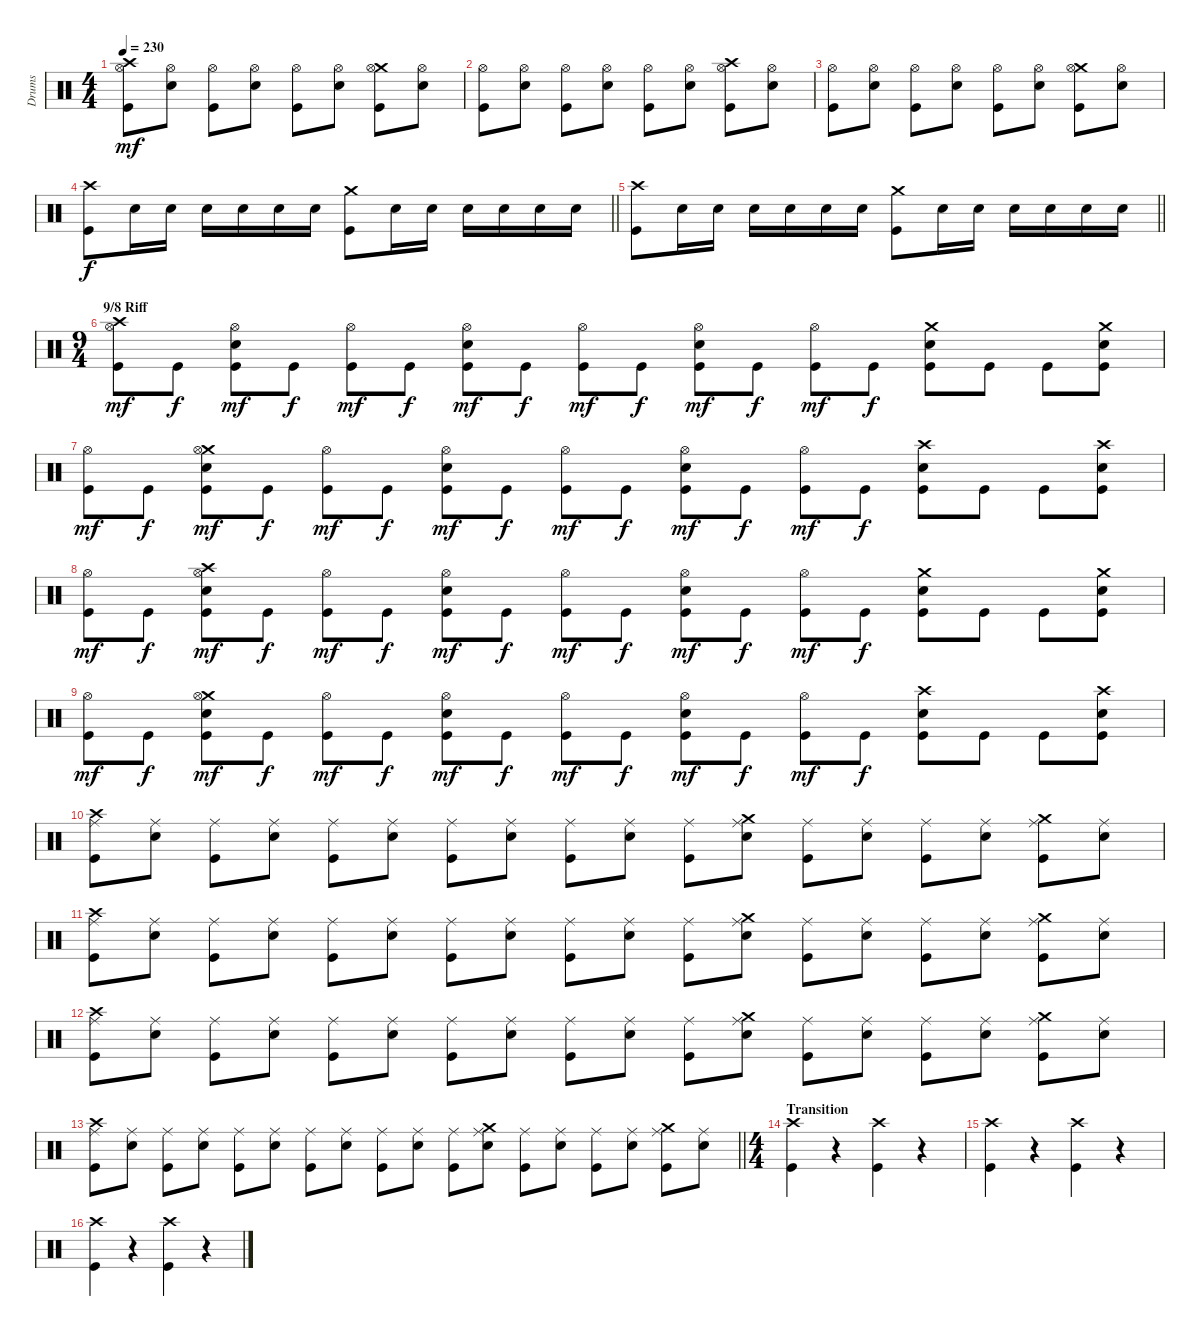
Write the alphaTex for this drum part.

\track ("Drums" "Drums") {instrument percussion}
\staff {score}
\articulation defaults
\ts (4 4)
\tempo 230
\clef neutral
\ks c
("Crash high (hit)" "Hi-Hat (open)" "Kick (hit)").8{dy mf} ("Hi-Hat (open)" "Electric Snare (hit)").8 ("Hi-Hat (open)" "Kick (hit)").8 ("Hi-Hat (open)" "Electric Snare (hit)").8 ("Hi-Hat (open)" "Kick (hit)").8 ("Hi-Hat (open)" "Electric Snare (hit)").8 ("Crash medium (hit)" "Hi-Hat (open)" "Kick (hit)").8 ("Hi-Hat (open)" "Electric Snare (hit)").8 |
("Hi-Hat (open)" "Kick (hit)").8 ("Hi-Hat (open)" "Electric Snare (hit)").8 ("Hi-Hat (open)" "Kick (hit)").8 ("Hi-Hat (open)" "Electric Snare (hit)").8 ("Hi-Hat (open)" "Kick (hit)").8 ("Hi-Hat (open)" "Electric Snare (hit)").8 ("Crash high (hit)" "Hi-Hat (open)" "Kick (hit)").8 ("Hi-Hat (open)" "Electric Snare (hit)").8 |
("Hi-Hat (open)" "Kick (hit)").8 ("Hi-Hat (open)" "Electric Snare (hit)").8 ("Hi-Hat (open)" "Kick (hit)").8 ("Hi-Hat (open)" "Electric Snare (hit)").8 ("Hi-Hat (open)" "Kick (hit)").8 ("Hi-Hat (open)" "Electric Snare (hit)").8 ("Crash medium (hit)" "Hi-Hat (open)" "Kick (hit)").8 ("Hi-Hat (open)" "Electric Snare (hit)").8 |
\barLineRight lightlight
("Crash high (hit)" "Kick (hit)").8{dy f} "Electric Snare (hit)".16 "Electric Snare (hit)".16 "Electric Snare (hit)".16 "Electric Snare (hit)".16 "Electric Snare (hit)".16 "Electric Snare (hit)".16 ("Crash medium (hit)" "Kick (hit)").8 "Electric Snare (hit)".16 "Electric Snare (hit)".16 "Electric Snare (hit)".16 "Electric Snare (hit)".16 "Electric Snare (hit)".16 "Electric Snare (hit)".16 |
\barLineRight lightlight
("Crash high (hit)" "Kick (hit)").8 "Electric Snare (hit)".16 "Electric Snare (hit)".16 "Electric Snare (hit)".16 "Electric Snare (hit)".16 "Electric Snare (hit)".16 "Electric Snare (hit)".16 ("Crash medium (hit)" "Kick (hit)").8 "Electric Snare (hit)".16 "Electric Snare (hit)".16 "Electric Snare (hit)".16 "Electric Snare (hit)".16 "Electric Snare (hit)".16 "Electric Snare (hit)".16 |
\ts (9 4)
\section ("" "9/8 Riff")
("Crash high (hit)" "Hi-Hat (open)" "Kick (hit)").8{dy mf} "Kick (hit)".8{dy f} ("Hi-Hat (open)" "Electric Snare (hit)" "Kick (hit)").8{dy mf} "Kick (hit)".8{dy f} ("Hi-Hat (open)" "Kick (hit)").8{dy mf} "Kick (hit)".8{dy f} ("Hi-Hat (open)" "Electric Snare (hit)" "Kick (hit)").8{dy mf} "Kick (hit)".8{dy f} ("Hi-Hat (open)" "Kick (hit)").8{dy mf} "Kick (hit)".8{dy f} ("Hi-Hat (open)" "Electric Snare (hit)" "Kick (hit)").8{dy mf} "Kick (hit)".8{dy f} ("Hi-Hat (open)" "Kick (hit)").8{dy mf} "Kick (hit)".8{dy f} ("Crash medium (hit)" "Electric Snare (hit)" "Kick (hit)").8 "Kick (hit)".8 "Kick (hit)".8 ("Crash medium (hit)" "Electric Snare (hit)" "Kick (hit)").8 |
("Hi-Hat (open)" "Kick (hit)").8{dy mf} "Kick (hit)".8{dy f} ("Crash medium (hit)" "Hi-Hat (open)" "Electric Snare (hit)" "Kick (hit)").8{dy mf} "Kick (hit)".8{dy f} ("Hi-Hat (open)" "Kick (hit)").8{dy mf} "Kick (hit)".8{dy f} ("Hi-Hat (open)" "Electric Snare (hit)" "Kick (hit)").8{dy mf} "Kick (hit)".8{dy f} ("Hi-Hat (open)" "Kick (hit)").8{dy mf} "Kick (hit)".8{dy f} ("Hi-Hat (open)" "Electric Snare (hit)" "Kick (hit)").8{dy mf} "Kick (hit)".8{dy f} ("Hi-Hat (open)" "Kick (hit)").8{dy mf} "Kick (hit)".8{dy f} ("Crash high (hit)" "Electric Snare (hit)" "Kick (hit)").8 "Kick (hit)".8 "Kick (hit)".8 ("Crash high (hit)" "Electric Snare (hit)" "Kick (hit)").8 |
("Hi-Hat (open)" "Kick (hit)").8{dy mf} "Kick (hit)".8{dy f} ("Crash high (hit)" "Hi-Hat (open)" "Electric Snare (hit)" "Kick (hit)").8{dy mf} "Kick (hit)".8{dy f} ("Hi-Hat (open)" "Kick (hit)").8{dy mf} "Kick (hit)".8{dy f} ("Hi-Hat (open)" "Electric Snare (hit)" "Kick (hit)").8{dy mf} "Kick (hit)".8{dy f} ("Hi-Hat (open)" "Kick (hit)").8{dy mf} "Kick (hit)".8{dy f} ("Hi-Hat (open)" "Electric Snare (hit)" "Kick (hit)").8{dy mf} "Kick (hit)".8{dy f} ("Hi-Hat (open)" "Kick (hit)").8{dy mf} "Kick (hit)".8{dy f} ("Crash medium (hit)" "Electric Snare (hit)" "Kick (hit)").8 "Kick (hit)".8 "Kick (hit)".8 ("Crash medium (hit)" "Electric Snare (hit)" "Kick (hit)").8 |
("Hi-Hat (open)" "Kick (hit)").8{dy mf} "Kick (hit)".8{dy f} ("Crash medium (hit)" "Hi-Hat (open)" "Electric Snare (hit)" "Kick (hit)").8{dy mf} "Kick (hit)".8{dy f} ("Hi-Hat (open)" "Kick (hit)").8{dy mf} "Kick (hit)".8{dy f} ("Hi-Hat (open)" "Electric Snare (hit)" "Kick (hit)").8{dy mf} "Kick (hit)".8{dy f} ("Hi-Hat (open)" "Kick (hit)").8{dy mf} "Kick (hit)".8{dy f} ("Hi-Hat (open)" "Electric Snare (hit)" "Kick (hit)").8{dy mf} "Kick (hit)".8{dy f} ("Hi-Hat (open)" "Kick (hit)").8{dy mf} "Kick (hit)".8{dy f} ("Crash high (hit)" "Electric Snare (hit)" "Kick (hit)").8 "Kick (hit)".8 "Kick (hit)".8 ("Crash high (hit)" "Electric Snare (hit)" "Kick (hit)").8 |
("Crash high (hit)" "Ride (middle)" "Kick (hit)").8 ("Ride (middle)" "Electric Snare (hit)").8 ("Ride (middle)" "Kick (hit)").8 ("Ride (middle)" "Electric Snare (hit)").8 ("Ride (middle)" "Kick (hit)").8 ("Ride (middle)" "Electric Snare (hit)").8 ("Ride (middle)" "Kick (hit)").8 ("Ride (middle)" "Electric Snare (hit)").8 ("Ride (middle)" "Kick (hit)").8 ("Ride (middle)" "Electric Snare (hit)").8 ("Ride (middle)" "Kick (hit)").8 ("Crash medium (hit)" "Ride (middle)" "Electric Snare (hit)").8 ("Ride (middle)" "Kick (hit)").8 ("Ride (middle)" "Electric Snare (hit)").8 ("Ride (middle)" "Kick (hit)").8 ("Ride (middle)" "Electric Snare (hit)").8 ("Crash medium (hit)" "Ride (middle)" "Kick (hit)").8 ("Ride (middle)" "Electric Snare (hit)").8 |
("Crash high (hit)" "Ride (middle)" "Kick (hit)").8 ("Ride (middle)" "Electric Snare (hit)").8 ("Ride (middle)" "Kick (hit)").8 ("Ride (middle)" "Electric Snare (hit)").8 ("Ride (middle)" "Kick (hit)").8 ("Ride (middle)" "Electric Snare (hit)").8 ("Ride (middle)" "Kick (hit)").8 ("Ride (middle)" "Electric Snare (hit)").8 ("Ride (middle)" "Kick (hit)").8 ("Ride (middle)" "Electric Snare (hit)").8 ("Ride (middle)" "Kick (hit)").8 ("Crash medium (hit)" "Ride (middle)" "Electric Snare (hit)").8 ("Ride (middle)" "Kick (hit)").8 ("Ride (middle)" "Electric Snare (hit)").8 ("Ride (middle)" "Kick (hit)").8 ("Ride (middle)" "Electric Snare (hit)").8 ("Crash medium (hit)" "Ride (middle)" "Kick (hit)").8 ("Ride (middle)" "Electric Snare (hit)").8 |
("Crash high (hit)" "Ride (middle)" "Kick (hit)").8 ("Ride (middle)" "Electric Snare (hit)").8 ("Ride (middle)" "Kick (hit)").8 ("Ride (middle)" "Electric Snare (hit)").8 ("Ride (middle)" "Kick (hit)").8 ("Ride (middle)" "Electric Snare (hit)").8 ("Ride (middle)" "Kick (hit)").8 ("Ride (middle)" "Electric Snare (hit)").8 ("Ride (middle)" "Kick (hit)").8 ("Ride (middle)" "Electric Snare (hit)").8 ("Ride (middle)" "Kick (hit)").8 ("Crash medium (hit)" "Ride (middle)" "Electric Snare (hit)").8 ("Ride (middle)" "Kick (hit)").8 ("Ride (middle)" "Electric Snare (hit)").8 ("Ride (middle)" "Kick (hit)").8 ("Ride (middle)" "Electric Snare (hit)").8 ("Crash medium (hit)" "Ride (middle)" "Kick (hit)").8 ("Ride (middle)" "Electric Snare (hit)").8 |
\barLineRight lightlight
("Crash high (hit)" "Ride (middle)" "Kick (hit)").8 ("Ride (middle)" "Electric Snare (hit)").8 ("Ride (middle)" "Kick (hit)").8 ("Ride (middle)" "Electric Snare (hit)").8 ("Ride (middle)" "Kick (hit)").8 ("Ride (middle)" "Electric Snare (hit)").8 ("Ride (middle)" "Kick (hit)").8 ("Ride (middle)" "Electric Snare (hit)").8 ("Ride (middle)" "Kick (hit)").8 ("Ride (middle)" "Electric Snare (hit)").8 ("Ride (middle)" "Kick (hit)").8 ("Crash medium (hit)" "Ride (middle)" "Electric Snare (hit)").8 ("Ride (middle)" "Kick (hit)").8 ("Ride (middle)" "Electric Snare (hit)").8 ("Ride (middle)" "Kick (hit)").8 ("Ride (middle)" "Electric Snare (hit)").8 ("Crash medium (hit)" "Ride (middle)" "Kick (hit)").8 ("Ride (middle)" "Electric Snare (hit)").8 |
\ts (4 4)
\section ("" "Transition")
("Crash high (hit)" "Kick (hit)").4 r.4 ("Crash high (hit)" "Kick (hit)").4 r.4 |
("Crash high (hit)" "Kick (hit)").4 r.4 ("Crash high (hit)" "Kick (hit)").4 r.4 |
("Crash high (hit)" "Kick (hit)").4 r.4 ("Crash high (hit)" "Kick (hit)").4 r.4
